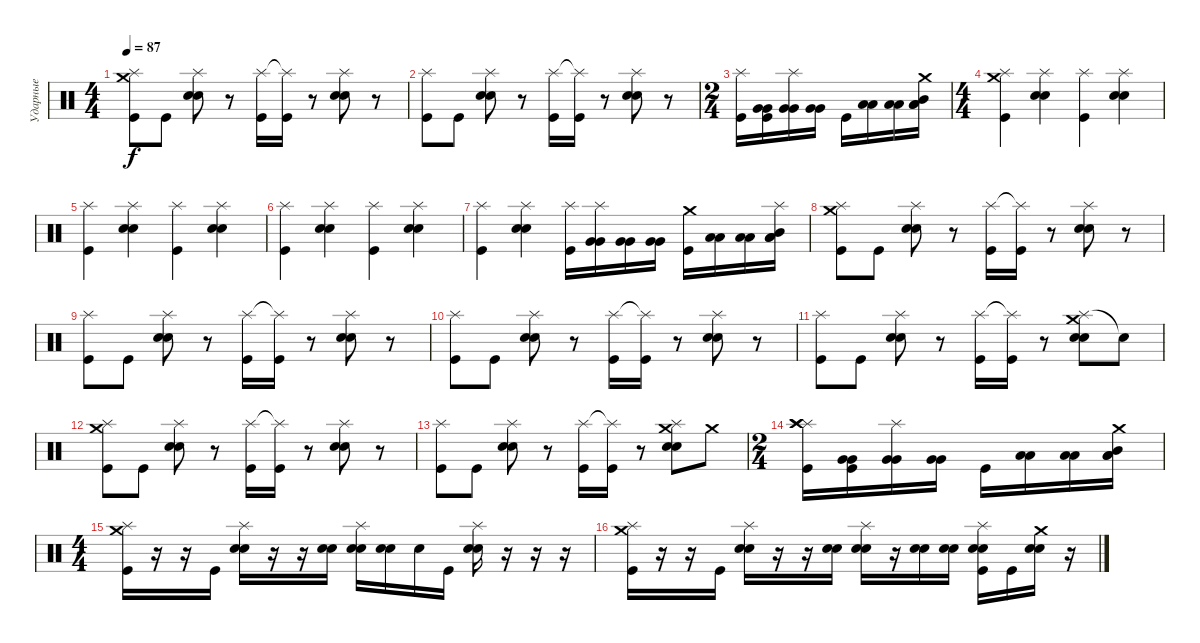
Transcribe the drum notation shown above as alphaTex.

\track ("Ударные" "Ударные") {instrument percussion}
\staff {score}
\articulation defaults
\ts (4 4)
\tempo 87
\clef neutral
\ks c
("Splash (hit)" "Crash medium (hit)" "Kick (hit)").8{dy f} "Kick (hit)".8 ("Splash (hit)" "Electric Snare (hit)" "Electric Snare (hit)").8 r.8 ("Splash (hit)" "Kick (hit)").16 ("Splash (hit)"{t} "Kick (hit)").16 r.8 ("Splash (hit)" "Electric Snare (hit)" "Electric Snare (hit)").8 r.8 |
("Splash (hit)" "Kick (hit)").8 "Kick (hit)".8 ("Splash (hit)" "Electric Snare (hit)" "Electric Snare (hit)").8 r.8 ("Splash (hit)" "Kick (hit)").16 ("Splash (hit)"{t} "Kick (hit)").16 r.8 ("Splash (hit)" "Electric Snare (hit)" "Electric Snare (hit)").8 r.8 |
\ts (2 4)
("Splash (hit)" "Kick (hit)").16 ("Very Low Tom (hit)" "Very Low Tom (hit)" "Kick (hit)").16 ("Splash (hit)" "Very Low Tom (hit)" "Very Low Tom (hit)").16 ("Very Low Tom (hit)" "Very Low Tom (hit)").16 "Kick (hit)".16 ("Low Floor Tom (hit)" "Low Floor Tom (hit)").16 ("Low Floor Tom (hit)" "Low Floor Tom (hit)").16 ("Crash medium (hit)" "Mid Tom (hit)" "Low Floor Tom (hit)" "Low Floor Tom (hit)").16 |
\ts (4 4)
("Splash (hit)" "Crash medium (hit)" "Kick (hit)").4 ("Splash (hit)" "Electric Snare (hit)" "Electric Snare (hit)").4 ("Splash (hit)" "Kick (hit)").4 ("Splash (hit)" "Electric Snare (hit)" "Electric Snare (hit)").4 |
("Splash (hit)" "Kick (hit)").4 ("Splash (hit)" "Electric Snare (hit)" "Electric Snare (hit)").4 ("Splash (hit)" "Kick (hit)").4 ("Splash (hit)" "Electric Snare (hit)" "Electric Snare (hit)").4 |
("Splash (hit)" "Kick (hit)").4 ("Splash (hit)" "Electric Snare (hit)" "Electric Snare (hit)").4 ("Splash (hit)" "Kick (hit)").4 ("Splash (hit)" "Electric Snare (hit)" "Electric Snare (hit)").4 |
("Splash (hit)" "Kick (hit)").4 ("Splash (hit)" "Electric Snare (hit)" "Electric Snare (hit)").4 ("Splash (hit)" "Kick (hit)").16 ("Splash (hit)" "Very Low Tom (hit)" "Very Low Tom (hit)").16 ("Very Low Tom (hit)" "Very Low Tom (hit)").16 ("Very Low Tom (hit)" "Very Low Tom (hit)").16 ("Crash medium (hit)" "Kick (hit)").16 ("Low Floor Tom (hit)" "Low Floor Tom (hit)").16 ("Low Floor Tom (hit)" "Low Floor Tom (hit)").16 ("Splash (hit)" "Mid Tom (hit)" "Low Floor Tom (hit)" "Low Floor Tom (hit)").16 |
("Splash (hit)" "Crash medium (hit)" "Kick (hit)").8 "Kick (hit)".8 ("Splash (hit)" "Electric Snare (hit)" "Electric Snare (hit)").8 r.8 ("Splash (hit)" "Kick (hit)").16 ("Splash (hit)"{t} "Kick (hit)").16 r.8 ("Splash (hit)" "Electric Snare (hit)" "Electric Snare (hit)").8 r.8 |
("Splash (hit)" "Kick (hit)").8 "Kick (hit)".8 ("Splash (hit)" "Electric Snare (hit)" "Electric Snare (hit)").8 r.8 ("Splash (hit)" "Kick (hit)").16 ("Splash (hit)"{t} "Kick (hit)").16 r.8 ("Splash (hit)" "Electric Snare (hit)" "Electric Snare (hit)").8 r.8 |
("Splash (hit)" "Kick (hit)").8 "Kick (hit)".8 ("Splash (hit)" "Electric Snare (hit)" "Electric Snare (hit)").8 r.8 ("Splash (hit)" "Kick (hit)").16 ("Splash (hit)"{t} "Kick (hit)").16 r.8 ("Splash (hit)" "Electric Snare (hit)" "Electric Snare (hit)").8 r.8 |
("Splash (hit)" "Kick (hit)").8 "Kick (hit)".8 ("Splash (hit)" "Electric Snare (hit)" "Electric Snare (hit)").8 r.8 ("Splash (hit)" "Kick (hit)").16 ("Splash (hit)"{t} "Kick (hit)").16 r.8 ("Splash (hit)" "Crash medium (hit)" "Electric Snare (hit)" "Electric Snare (hit)").8 "Snare (hit)"{t}.8 |
("Splash (hit)" "Crash medium (hit)" "Kick (hit)").8 "Kick (hit)".8 ("Splash (hit)" "Electric Snare (hit)" "Electric Snare (hit)").8 r.8 ("Splash (hit)" "Kick (hit)").16 ("Splash (hit)"{t} "Kick (hit)").16 r.8 ("Splash (hit)" "Electric Snare (hit)" "Electric Snare (hit)").8 r.8 |
("Splash (hit)" "Kick (hit)").8 "Kick (hit)".8 ("Splash (hit)" "Electric Snare (hit)" "Electric Snare (hit)").8 r.8 ("Splash (hit)" "Kick (hit)").16 ("Splash (hit)"{t} "Kick (hit)").16 r.8 ("Splash (hit)" "Crash medium (hit)" "Electric Snare (hit)" "Electric Snare (hit)").8 "Crash medium (hit)".8 |
\ts (2 4)
("Splash (hit)" "Crash high (hit)" "Crash high (hit)" "Kick (hit)").16 ("Very Low Tom (hit)" "Very Low Tom (hit)" "Kick (hit)").16 ("Splash (hit)" "Very Low Tom (hit)" "Very Low Tom (hit)").16 ("Very Low Tom (hit)" "Very Low Tom (hit)").16 "Kick (hit)".16 ("Low Floor Tom (hit)" "Low Floor Tom (hit)").16 ("Low Floor Tom (hit)" "Low Floor Tom (hit)").16 ("Crash medium (hit)" "Mid Tom (hit)" "Low Floor Tom (hit)" "Low Floor Tom (hit)").16 |
\ts (4 4)
("Splash (hit)" "Crash medium (hit)" "Kick (hit)").16 r.16 r.16 "Kick (hit)".16 ("Splash (hit)" "Electric Snare (hit)" "Electric Snare (hit)").16 r.16 r.16 ("Electric Snare (hit)" "Electric Snare (hit)").16 ("Splash (hit)" "Electric Snare (hit)" "Electric Snare (hit)").16 ("Electric Snare (hit)" "Electric Snare (hit)").16 "Electric Snare (hit)".16 "Kick (hit)".16 ("Splash (hit)" "Electric Snare (hit)" "Electric Snare (hit)").16 r.16 r.16 r.16 |
("Splash (hit)" "Crash medium (hit)" "Kick (hit)").16 r.16 r.16 "Kick (hit)".16 ("Splash (hit)" "Electric Snare (hit)" "Electric Snare (hit)").16 r.16 r.16 ("Electric Snare (hit)" "Electric Snare (hit)").16 ("Splash (hit)" "Electric Snare (hit)" "Electric Snare (hit)").16 r.16 ("Electric Snare (hit)" "Electric Snare (hit)").16 ("Electric Snare (hit)" "Electric Snare (hit)").16 ("Splash (hit)" "Electric Snare (hit)" "Electric Snare (hit)" "Kick (hit)").16 "Kick (hit)".16 ("Crash medium (hit)" "Electric Snare (hit)" "Electric Snare (hit)").16 r.16
